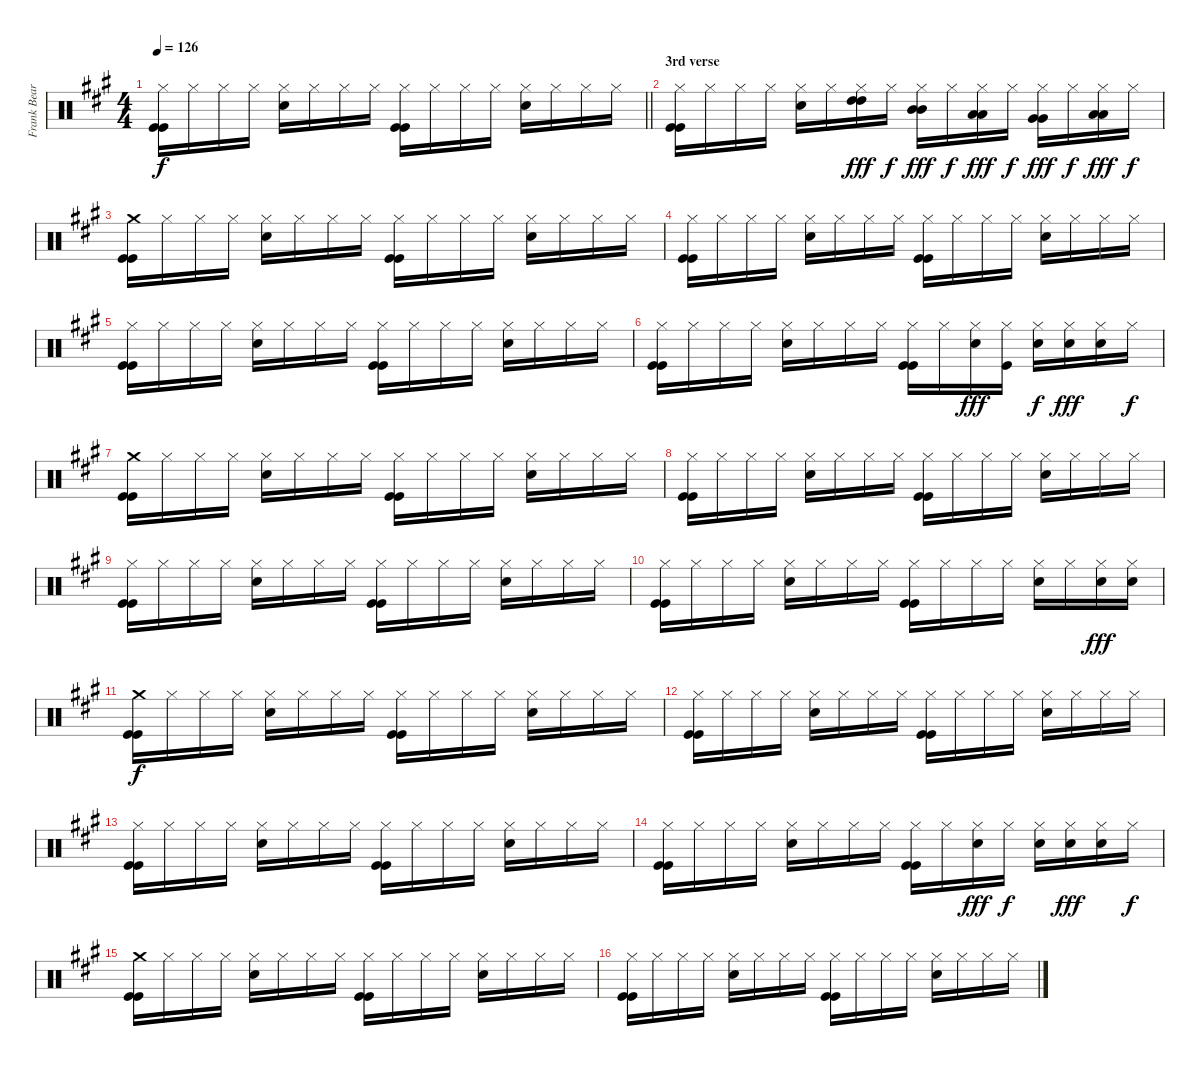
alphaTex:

\track ("Frank Beard: Drums" "Frank Bear") {instrument percussion}
\staff {score}
\articulation defaults
\ts (4 4)
\tempo 126
\clef neutral
\barLineRight lightlight
\ks a
("Hi-Hat (closed)" "Kick (hit)" "Kick (hit)").16{dy f} "Hi-Hat (closed)".16 "Hi-Hat (closed)".16 "Hi-Hat (closed)".16 ("Hi-Hat (closed)" "Electric Snare (hit)").16 "Hi-Hat (closed)".16 "Hi-Hat (closed)".16 "Hi-Hat (closed)".16 ("Hi-Hat (closed)" "Kick (hit)" "Kick (hit)").16 "Hi-Hat (closed)".16 "Hi-Hat (closed)".16 "Hi-Hat (closed)".16 ("Hi-Hat (closed)" "Electric Snare (hit)").16 "Hi-Hat (closed)".16 "Hi-Hat (closed)".16 "Hi-Hat (closed)".16 |
\section ("" "3rd verse")
("Hi-Hat (closed)" "Kick (hit)" "Kick (hit)").16 "Hi-Hat (closed)".16 "Hi-Hat (closed)".16 "Hi-Hat (closed)".16 ("Hi-Hat (closed)" "Electric Snare (hit)").16 "Hi-Hat (closed)".16 ("Hi-Hat (closed)" "High Tom (hit)" "High Tom (hit)").16{dy fff} "Hi-Hat (closed)".16{dy f} ("Hi-Hat (closed)" "Mid Tom (hit)" "Mid Tom (hit)").16{dy fff} "Hi-Hat (closed)".16{dy f} ("Hi-Hat (closed)" "Low Tom (hit)" "Low Tom (hit)").16{dy fff} "Hi-Hat (closed)".16{dy f} ("Hi-Hat (closed)" "Very Low Tom (hit)" "Very Low Tom (hit)").16{dy fff} "Hi-Hat (closed)".16{dy f} ("Hi-Hat (closed)" "Low Floor Tom (hit)" "Low Floor Tom (hit)").16{dy fff} "Hi-Hat (closed)".16{dy f} |
("Crash medium (hit)" "Kick (hit)" "Kick (hit)").16 "Hi-Hat (closed)".16 "Hi-Hat (closed)".16 "Hi-Hat (closed)".16 ("Hi-Hat (closed)" "Electric Snare (hit)").16 "Hi-Hat (closed)".16 "Hi-Hat (closed)".16 "Hi-Hat (closed)".16 ("Hi-Hat (closed)" "Kick (hit)" "Kick (hit)").16 "Hi-Hat (closed)".16 "Hi-Hat (closed)".16 "Hi-Hat (closed)".16 ("Hi-Hat (closed)" "Electric Snare (hit)").16 "Hi-Hat (closed)".16 "Hi-Hat (closed)".16 "Hi-Hat (closed)".16 |
("Hi-Hat (closed)" "Kick (hit)" "Kick (hit)").16 "Hi-Hat (closed)".16 "Hi-Hat (closed)".16 "Hi-Hat (closed)".16 ("Hi-Hat (closed)" "Electric Snare (hit)").16 "Hi-Hat (closed)".16 "Hi-Hat (closed)".16 "Hi-Hat (closed)".16 ("Hi-Hat (closed)" "Kick (hit)" "Kick (hit)").16 "Hi-Hat (closed)".16 "Hi-Hat (closed)".16 "Hi-Hat (closed)".16 ("Hi-Hat (closed)" "Electric Snare (hit)").16 "Hi-Hat (closed)".16 "Hi-Hat (closed)".16 "Hi-Hat (closed)".16 |
("Hi-Hat (closed)" "Kick (hit)" "Kick (hit)").16 "Hi-Hat (closed)".16 "Hi-Hat (closed)".16 "Hi-Hat (closed)".16 ("Hi-Hat (closed)" "Electric Snare (hit)").16 "Hi-Hat (closed)".16 "Hi-Hat (closed)".16 "Hi-Hat (closed)".16 ("Hi-Hat (closed)" "Kick (hit)" "Kick (hit)").16 "Hi-Hat (closed)".16 "Hi-Hat (closed)".16 "Hi-Hat (closed)".16 ("Hi-Hat (closed)" "Electric Snare (hit)").16 "Hi-Hat (closed)".16 "Hi-Hat (closed)".16 "Hi-Hat (closed)".16 |
("Hi-Hat (closed)" "Kick (hit)" "Kick (hit)").16 "Hi-Hat (closed)".16 "Hi-Hat (closed)".16 "Hi-Hat (closed)".16 ("Hi-Hat (closed)" "Electric Snare (hit)").16 "Hi-Hat (closed)".16 "Hi-Hat (closed)".16 "Hi-Hat (closed)".16 ("Hi-Hat (closed)" "Kick (hit)" "Kick (hit)").16 "Hi-Hat (closed)".16 ("Hi-Hat (closed)" "Electric Snare (hit)").16{dy fff} ("Hi-Hat (closed)" "Kick (hit)").16 ("Hi-Hat (closed)" "Electric Snare (hit)").16{dy f} ("Hi-Hat (closed)" "Electric Snare (hit)").16{dy fff} ("Hi-Hat (closed)" "Electric Snare (hit)").16 "Hi-Hat (closed)".16{dy f} |
("Crash medium (hit)" "Kick (hit)" "Kick (hit)").16 "Hi-Hat (closed)".16 "Hi-Hat (closed)".16 "Hi-Hat (closed)".16 ("Hi-Hat (closed)" "Electric Snare (hit)").16 "Hi-Hat (closed)".16 "Hi-Hat (closed)".16 "Hi-Hat (closed)".16 ("Hi-Hat (closed)" "Kick (hit)" "Kick (hit)").16 "Hi-Hat (closed)".16 "Hi-Hat (closed)".16 "Hi-Hat (closed)".16 ("Hi-Hat (closed)" "Electric Snare (hit)").16 "Hi-Hat (closed)".16 "Hi-Hat (closed)".16 "Hi-Hat (closed)".16 |
("Hi-Hat (closed)" "Kick (hit)" "Kick (hit)").16 "Hi-Hat (closed)".16 "Hi-Hat (closed)".16 "Hi-Hat (closed)".16 ("Hi-Hat (closed)" "Electric Snare (hit)").16 "Hi-Hat (closed)".16 "Hi-Hat (closed)".16 "Hi-Hat (closed)".16 ("Hi-Hat (closed)" "Kick (hit)" "Kick (hit)").16 "Hi-Hat (closed)".16 "Hi-Hat (closed)".16 "Hi-Hat (closed)".16 ("Hi-Hat (closed)" "Electric Snare (hit)").16 "Hi-Hat (closed)".16 "Hi-Hat (closed)".16 "Hi-Hat (closed)".16 |
("Hi-Hat (closed)" "Kick (hit)" "Kick (hit)").16 "Hi-Hat (closed)".16 "Hi-Hat (closed)".16 "Hi-Hat (closed)".16 ("Hi-Hat (closed)" "Electric Snare (hit)").16 "Hi-Hat (closed)".16 "Hi-Hat (closed)".16 "Hi-Hat (closed)".16 ("Hi-Hat (closed)" "Kick (hit)" "Kick (hit)").16 "Hi-Hat (closed)".16 "Hi-Hat (closed)".16 "Hi-Hat (closed)".16 ("Hi-Hat (closed)" "Electric Snare (hit)").16 "Hi-Hat (closed)".16 "Hi-Hat (closed)".16 "Hi-Hat (closed)".16 |
("Hi-Hat (closed)" "Kick (hit)" "Kick (hit)").16 "Hi-Hat (closed)".16 "Hi-Hat (closed)".16 "Hi-Hat (closed)".16 ("Hi-Hat (closed)" "Electric Snare (hit)").16 "Hi-Hat (closed)".16 "Hi-Hat (closed)".16 "Hi-Hat (closed)".16 ("Hi-Hat (closed)" "Kick (hit)" "Kick (hit)").16 "Hi-Hat (closed)".16 "Hi-Hat (closed)".16 "Hi-Hat (closed)".16 ("Hi-Hat (closed)" "Electric Snare (hit)").16 "Hi-Hat (closed)".16 ("Hi-Hat (closed)" "Electric Snare (hit)").16{dy fff} ("Hi-Hat (closed)" "Electric Snare (hit)").16 |
("Crash medium (hit)" "Kick (hit)" "Kick (hit)").16{dy f} "Hi-Hat (closed)".16 "Hi-Hat (closed)".16 "Hi-Hat (closed)".16 ("Hi-Hat (closed)" "Electric Snare (hit)").16 "Hi-Hat (closed)".16 "Hi-Hat (closed)".16 "Hi-Hat (closed)".16 ("Hi-Hat (closed)" "Kick (hit)" "Kick (hit)").16 "Hi-Hat (closed)".16 "Hi-Hat (closed)".16 "Hi-Hat (closed)".16 ("Hi-Hat (closed)" "Electric Snare (hit)").16 "Hi-Hat (closed)".16 "Hi-Hat (closed)".16 "Hi-Hat (closed)".16 |
("Hi-Hat (closed)" "Kick (hit)" "Kick (hit)").16 "Hi-Hat (closed)".16 "Hi-Hat (closed)".16 "Hi-Hat (closed)".16 ("Hi-Hat (closed)" "Electric Snare (hit)").16 "Hi-Hat (closed)".16 "Hi-Hat (closed)".16 "Hi-Hat (closed)".16 ("Hi-Hat (closed)" "Kick (hit)" "Kick (hit)").16 "Hi-Hat (closed)".16 "Hi-Hat (closed)".16 "Hi-Hat (closed)".16 ("Hi-Hat (closed)" "Electric Snare (hit)").16 "Hi-Hat (closed)".16 "Hi-Hat (closed)".16 "Hi-Hat (closed)".16 |
("Hi-Hat (closed)" "Kick (hit)" "Kick (hit)").16 "Hi-Hat (closed)".16 "Hi-Hat (closed)".16 "Hi-Hat (closed)".16 ("Hi-Hat (closed)" "Electric Snare (hit)").16 "Hi-Hat (closed)".16 "Hi-Hat (closed)".16 "Hi-Hat (closed)".16 ("Hi-Hat (closed)" "Kick (hit)" "Kick (hit)").16 "Hi-Hat (closed)".16 "Hi-Hat (closed)".16 "Hi-Hat (closed)".16 ("Hi-Hat (closed)" "Electric Snare (hit)").16 "Hi-Hat (closed)".16 "Hi-Hat (closed)".16 "Hi-Hat (closed)".16 |
("Hi-Hat (closed)" "Kick (hit)" "Kick (hit)").16 "Hi-Hat (closed)".16 "Hi-Hat (closed)".16 "Hi-Hat (closed)".16 ("Hi-Hat (closed)" "Electric Snare (hit)").16 "Hi-Hat (closed)".16 "Hi-Hat (closed)".16 "Hi-Hat (closed)".16 ("Hi-Hat (closed)" "Kick (hit)" "Kick (hit)").16 "Hi-Hat (closed)".16 ("Hi-Hat (closed)" "Electric Snare (hit)").16{dy fff} "Hi-Hat (closed)".16{dy f} ("Hi-Hat (closed)" "Electric Snare (hit)").16 ("Hi-Hat (closed)" "Electric Snare (hit)").16{dy fff} ("Hi-Hat (closed)" "Electric Snare (hit)").16 "Hi-Hat (closed)".16{dy f} |
("Crash medium (hit)" "Kick (hit)" "Kick (hit)").16 "Hi-Hat (closed)".16 "Hi-Hat (closed)".16 "Hi-Hat (closed)".16 ("Hi-Hat (closed)" "Electric Snare (hit)").16 "Hi-Hat (closed)".16 "Hi-Hat (closed)".16 "Hi-Hat (closed)".16 ("Hi-Hat (closed)" "Kick (hit)" "Kick (hit)").16 "Hi-Hat (closed)".16 "Hi-Hat (closed)".16 "Hi-Hat (closed)".16 ("Hi-Hat (closed)" "Electric Snare (hit)").16 "Hi-Hat (closed)".16 "Hi-Hat (closed)".16 "Hi-Hat (closed)".16 |
("Hi-Hat (closed)" "Kick (hit)" "Kick (hit)").16 "Hi-Hat (closed)".16 "Hi-Hat (closed)".16 "Hi-Hat (closed)".16 ("Hi-Hat (closed)" "Electric Snare (hit)").16 "Hi-Hat (closed)".16 "Hi-Hat (closed)".16 "Hi-Hat (closed)".16 ("Hi-Hat (closed)" "Kick (hit)" "Kick (hit)").16 "Hi-Hat (closed)".16 "Hi-Hat (closed)".16 "Hi-Hat (closed)".16 ("Hi-Hat (closed)" "Electric Snare (hit)").16 "Hi-Hat (closed)".16 "Hi-Hat (closed)".16 "Hi-Hat (closed)".16
